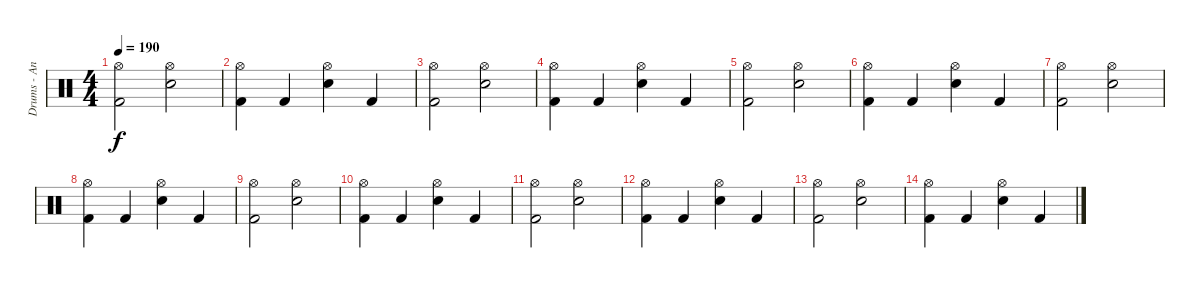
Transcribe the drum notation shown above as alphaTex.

\track ("Drums - Anders Johansson" "Drums - An") {instrument percussion}
\staff {score}
\articulation defaults
\ts (4 4)
\tempo 190
\clef neutral
\ks c
("Hi-Hat (open)" "Kick (hit) 2").2{dy f} ("Hi-Hat (open)" "Snare (hit) 2").2 |
("Hi-Hat (open)" "Kick (hit) 2").4 "Kick (hit) 2".4 ("Hi-Hat (open)" "Snare (hit) 2").4 "Kick (hit) 2".4 |
("Hi-Hat (open)" "Kick (hit) 2").2 ("Hi-Hat (open)" "Snare (hit) 2").2 |
("Hi-Hat (open)" "Kick (hit) 2").4 "Kick (hit) 2".4 ("Hi-Hat (open)" "Snare (hit) 2").4 "Kick (hit) 2".4 |
("Hi-Hat (open)" "Kick (hit) 2").2 ("Hi-Hat (open)" "Snare (hit) 2").2 |
("Hi-Hat (open)" "Kick (hit) 2").4 "Kick (hit) 2".4 ("Hi-Hat (open)" "Snare (hit) 2").4 "Kick (hit) 2".4 |
("Hi-Hat (open)" "Kick (hit) 2").2 ("Hi-Hat (open)" "Snare (hit) 2").2 |
("Hi-Hat (open)" "Kick (hit) 2").4 "Kick (hit) 2".4 ("Hi-Hat (open)" "Snare (hit) 2").4 "Kick (hit) 2".4 |
("Hi-Hat (open)" "Kick (hit) 2").2 ("Hi-Hat (open)" "Snare (hit) 2").2 |
("Hi-Hat (open)" "Kick (hit) 2").4 "Kick (hit) 2".4 ("Hi-Hat (open)" "Snare (hit) 2").4 "Kick (hit) 2".4 |
("Hi-Hat (open)" "Kick (hit) 2").2 ("Hi-Hat (open)" "Snare (hit) 2").2 |
("Hi-Hat (open)" "Kick (hit) 2").4 "Kick (hit) 2".4 ("Hi-Hat (open)" "Snare (hit) 2").4 "Kick (hit) 2".4 |
("Hi-Hat (open)" "Kick (hit) 2").2 ("Hi-Hat (open)" "Snare (hit) 2").2 |
("Hi-Hat (open)" "Kick (hit) 2").4 "Kick (hit) 2".4 ("Hi-Hat (open)" "Snare (hit) 2").4 "Kick (hit) 2".4
